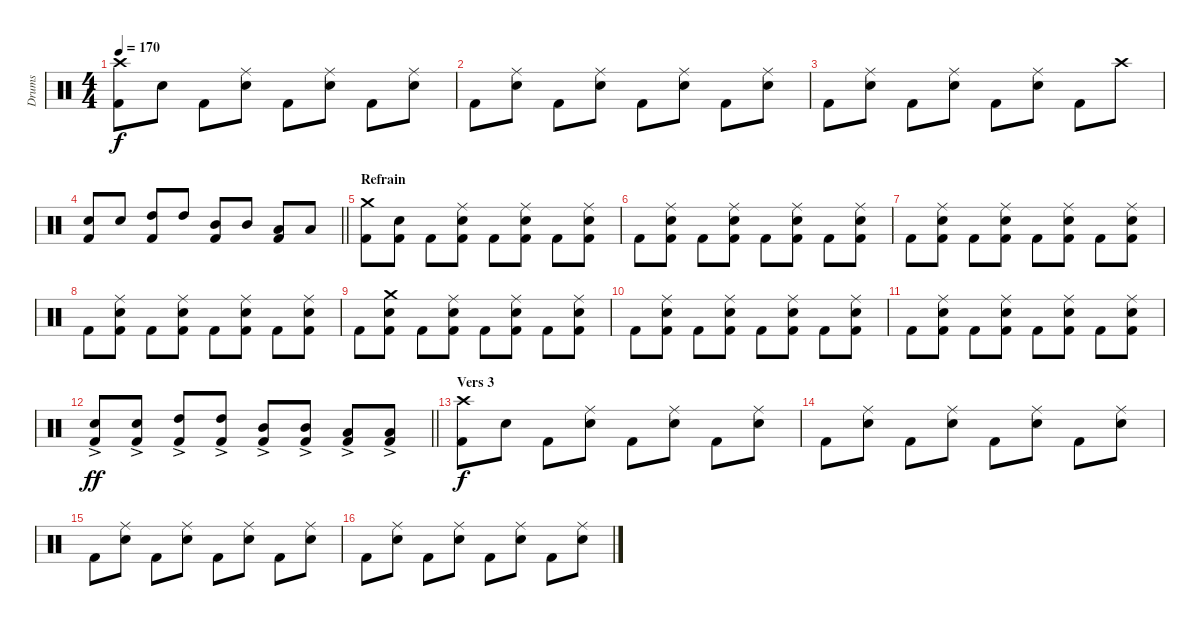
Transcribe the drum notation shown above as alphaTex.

\track ("Drums" "Drums") {instrument percussion}
\staff {score}
\articulation defaults
\ts (4 4)
\tempo 170
\clef neutral
\ks c
("Crash high (hit)" "Kick (hit) 2").8{dy f} "Snare (hit) 2".8 "Kick (hit) 2".8 ("Ride (middle)" "Snare (hit) 2").8 "Kick (hit) 2".8 ("Ride (middle)" "Snare (hit) 2").8 "Kick (hit) 2".8 ("Ride (middle)" "Snare (hit) 2").8 |
"Kick (hit) 2".8 ("Ride (middle)" "Snare (hit) 2").8 "Kick (hit) 2".8 ("Ride (middle)" "Snare (hit) 2").8 "Kick (hit) 2".8 ("Ride (middle)" "Snare (hit) 2").8 "Kick (hit) 2".8 ("Ride (middle)" "Snare (hit) 2").8 |
"Kick (hit) 2".8 ("Ride (middle)" "Snare (hit) 2").8 "Kick (hit) 2".8 ("Ride (middle)" "Snare (hit) 2").8 "Kick (hit) 2".8 ("Ride (middle)" "Snare (hit) 2").8 "Kick (hit) 2".8 "Crash high (hit)".8 |
\barLineRight lightlight
("Snare (hit) 2" "Kick (hit) 2").8 "Snare (hit) 2".8 ("High Tom (hit)" "Kick (hit) 2").8 "High Tom (hit)".8 ("Mid Tom (hit)" "Kick (hit) 2").8 "Mid Tom (hit)".8 ("Low Tom (hit)" "Kick (hit) 2").8 "Low Tom (hit)".8 |
\section ("" "Refrain")
("Crash medium (hit)" "Kick (hit) 2").8 ("Snare (hit) 2" "Kick (hit) 2").8 "Kick (hit) 2".8 ("Ride (middle)" "Snare (hit) 2" "Kick (hit) 2").8 "Kick (hit) 2".8 ("Ride (middle)" "Snare (hit) 2" "Kick (hit) 2").8 "Kick (hit) 2".8 ("Ride (middle)" "Snare (hit) 2" "Kick (hit) 2").8 |
"Kick (hit) 2".8 ("Ride (middle)" "Snare (hit) 2" "Kick (hit) 2").8 "Kick (hit) 2".8 ("Ride (middle)" "Snare (hit) 2" "Kick (hit) 2").8 "Kick (hit) 2".8 ("Ride (middle)" "Snare (hit) 2" "Kick (hit) 2").8 "Kick (hit) 2".8 ("Ride (middle)" "Snare (hit) 2" "Kick (hit) 2").8 |
"Kick (hit) 2".8 ("Ride (middle)" "Snare (hit) 2" "Kick (hit) 2").8 "Kick (hit) 2".8 ("Ride (middle)" "Snare (hit) 2" "Kick (hit) 2").8 "Kick (hit) 2".8 ("Ride (middle)" "Snare (hit) 2" "Kick (hit) 2").8 "Kick (hit) 2".8 ("Ride (middle)" "Snare (hit) 2" "Kick (hit) 2").8 |
"Kick (hit) 2".8 ("Ride (middle)" "Snare (hit) 2" "Kick (hit) 2").8 "Kick (hit) 2".8 ("Ride (middle)" "Snare (hit) 2" "Kick (hit) 2").8 "Kick (hit) 2".8 ("Ride (middle)" "Snare (hit) 2" "Kick (hit) 2").8 "Kick (hit) 2".8 ("Ride (middle)" "Snare (hit) 2" "Kick (hit) 2").8 |
"Kick (hit) 2".8 ("Crash medium (hit)" "Snare (hit) 2" "Kick (hit) 2").8 "Kick (hit) 2".8 ("Ride (middle)" "Snare (hit) 2" "Kick (hit) 2").8 "Kick (hit) 2".8 ("Ride (middle)" "Snare (hit) 2" "Kick (hit) 2").8 "Kick (hit) 2".8 ("Ride (middle)" "Snare (hit) 2" "Kick (hit) 2").8 |
"Kick (hit) 2".8 ("Ride (middle)" "Snare (hit) 2" "Kick (hit) 2").8 "Kick (hit) 2".8 ("Ride (middle)" "Snare (hit) 2" "Kick (hit) 2").8 "Kick (hit) 2".8 ("Ride (middle)" "Snare (hit) 2" "Kick (hit) 2").8 "Kick (hit) 2".8 ("Ride (middle)" "Snare (hit) 2" "Kick (hit) 2").8 |
"Kick (hit) 2".8 ("Ride (middle)" "Snare (hit) 2" "Kick (hit) 2").8 "Kick (hit) 2".8 ("Ride (middle)" "Snare (hit) 2" "Kick (hit) 2").8 "Kick (hit) 2".8 ("Ride (middle)" "Snare (hit) 2" "Kick (hit) 2").8 "Kick (hit) 2".8 ("Ride (middle)" "Snare (hit) 2" "Kick (hit) 2").8 |
\barLineRight lightlight
("Snare (hit) 2"{ac} "Kick (hit) 2").8{dy ff} ("Snare (hit) 2"{ac} "Kick (hit) 2").8 ("High Tom (hit)"{ac} "Kick (hit) 2").8 ("High Tom (hit)"{ac} "Kick (hit) 2").8 ("Mid Tom (hit)"{ac} "Kick (hit) 2").8 ("Mid Tom (hit)"{ac} "Kick (hit) 2").8 ("Low Tom (hit)"{ac} "Kick (hit) 2").8 ("Low Tom (hit)"{ac} "Kick (hit) 2").8 |
\section ("" "Vers 3")
("Crash high (hit)" "Kick (hit) 2").8{dy f} "Snare (hit) 2".8 "Kick (hit) 2".8 ("Ride (middle)" "Snare (hit) 2").8 "Kick (hit) 2".8 ("Ride (middle)" "Snare (hit) 2").8 "Kick (hit) 2".8 ("Ride (middle)" "Snare (hit) 2").8 |
"Kick (hit) 2".8 ("Ride (middle)" "Snare (hit) 2").8 "Kick (hit) 2".8 ("Ride (middle)" "Snare (hit) 2").8 "Kick (hit) 2".8 ("Ride (middle)" "Snare (hit) 2").8 "Kick (hit) 2".8 ("Ride (middle)" "Snare (hit) 2").8 |
"Kick (hit) 2".8 ("Ride (middle)" "Snare (hit) 2").8 "Kick (hit) 2".8 ("Ride (middle)" "Snare (hit) 2").8 "Kick (hit) 2".8 ("Ride (middle)" "Snare (hit) 2").8 "Kick (hit) 2".8 ("Ride (middle)" "Snare (hit) 2").8 |
"Kick (hit) 2".8 ("Ride (middle)" "Snare (hit) 2").8 "Kick (hit) 2".8 ("Ride (middle)" "Snare (hit) 2").8 "Kick (hit) 2".8 ("Ride (middle)" "Snare (hit) 2").8 "Kick (hit) 2".8 ("Ride (middle)" "Snare (hit) 2").8
